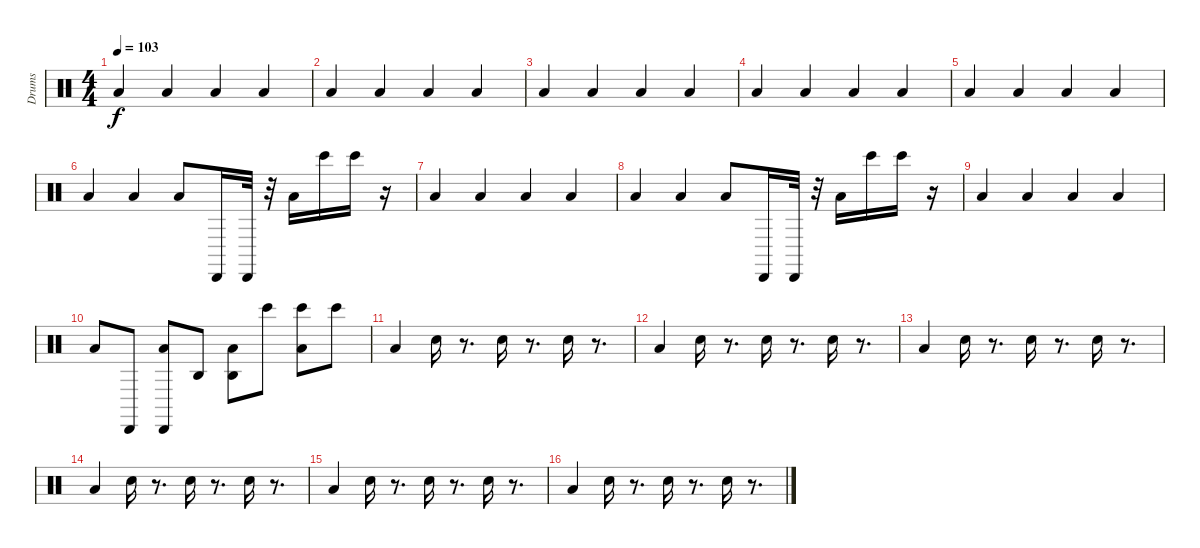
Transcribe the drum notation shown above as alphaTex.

\track ("Drums" "Drums") {instrument percussion}
\staff {score}
\articulation defaults
\ts (4 4)
\tempo 103
\clef neutral
\ks c "Low Tom (hit)".4{dy f} "Low Tom (hit)".4 "Low Tom (hit)".4 "Low Tom (hit)".4
|
"Low Tom (hit)".4 "Low Tom (hit)".4 "Low Tom (hit)".4 "Low Tom (hit)".4 |
"Low Tom (hit)".4 "Low Tom (hit)".4 "Low Tom (hit)".4 "Low Tom (hit)".4 |
"Low Tom (hit)".4 "Low Tom (hit)".4 "Low Tom (hit)".4 "Low Tom (hit)".4 |
"Low Tom (hit)".4 "Low Tom (hit)".4 "Low Tom (hit)".4 "Low Tom (hit)".4 |
"Low Tom (hit)".4 "Low Tom (hit)".4 "Low Tom (hit)".8 "Cabasa (hit)".16 "Cabasa (hit)".32 r.32 "Low Tom (hit)".16 "Bongo High (hit)".16 "Bongo High (hit)".16 r.16 |
"Low Tom (hit)".4 "Low Tom (hit)".4 "Low Tom (hit)".4 "Low Tom (hit)".4 |
"Low Tom (hit)".4 "Low Tom (hit)".4 "Low Tom (hit)".8 "Cabasa (hit)".16 "Cabasa (hit)".32 r.32 "Low Tom (hit)".16 "Bongo High (hit)".16 "Bongo High (hit)".16 r.16 |
"Low Tom (hit)".4 "Low Tom (hit)".4 "Low Tom (hit)".4 "Low Tom (hit)".4 |
"Low Tom (hit)".8 "Cabasa (hit)".8 ("Cabasa (hit)" "Low Tom (hit)").8 "Agogo high (hit)".8 ("Low Tom (hit)" "Agogo high (hit)").8 "Bongo High (hit)".8 ("Bongo High (hit)" "Low Tom (hit)").8 "Bongo High (hit)".8 |
"Low Tom (hit)".4 "Electric Snare (hit)".16 r.8{d} "Electric Snare (hit)".16 r.8{d} "Electric Snare (hit)".16 r.8{d} |
"Low Tom (hit)".4 "Electric Snare (hit)".16 r.8{d} "Electric Snare (hit)".16 r.8{d} "Electric Snare (hit)".16 r.8{d} |
"Low Tom (hit)".4 "Electric Snare (hit)".16 r.8{d} "Electric Snare (hit)".16 r.8{d} "Electric Snare (hit)".16 r.8{d} |
"Low Tom (hit)".4 "Electric Snare (hit)".16 r.8{d} "Electric Snare (hit)".16 r.8{d} "Electric Snare (hit)".16 r.8{d} |
"Low Tom (hit)".4 "Electric Snare (hit)".16 r.8{d} "Electric Snare (hit)".16 r.8{d} "Electric Snare (hit)".16 r.8{d} |
"Low Tom (hit)".4 "Electric Snare (hit)".16 r.8{d} "Electric Snare (hit)".16 r.8{d} "Electric Snare (hit)".16 r.8{d}
